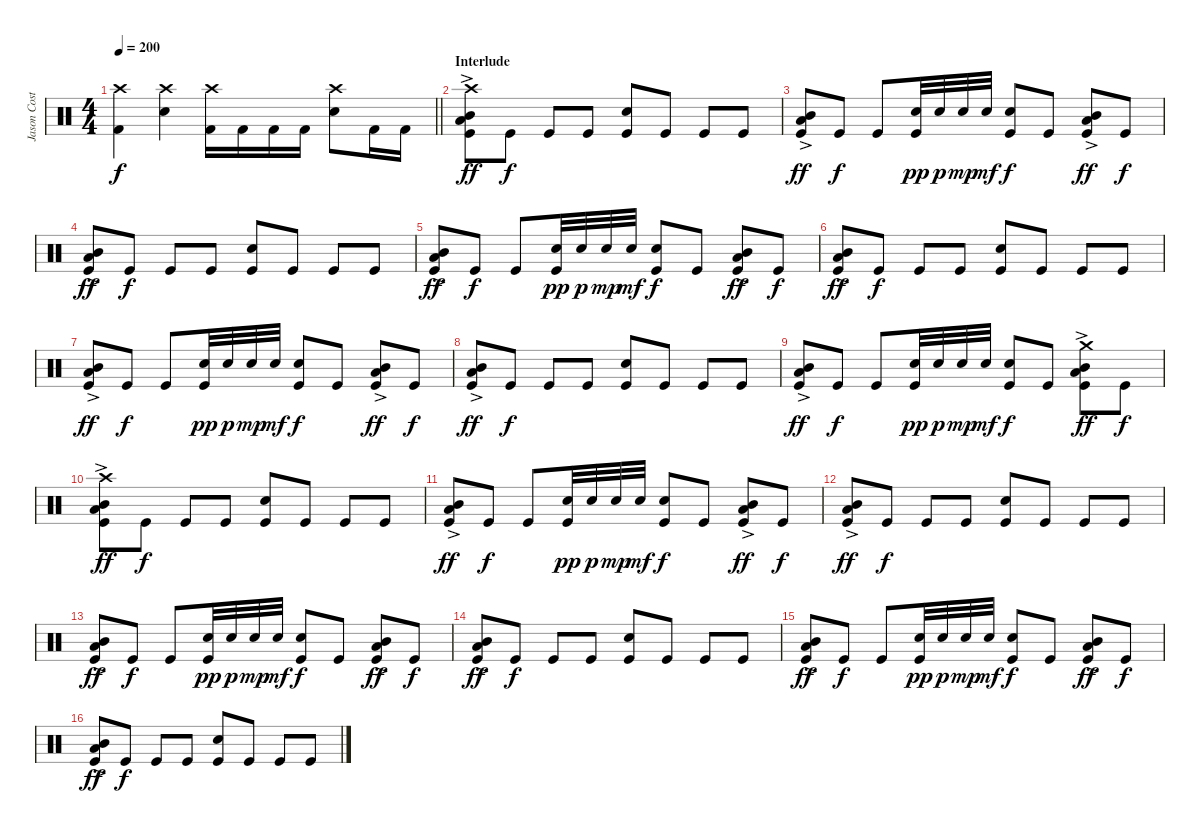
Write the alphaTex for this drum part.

\track ("Jason Costa" "Jason Cost") {instrument percussion}
\staff {score}
\articulation defaults
\ts (4 4)
\tempo 200
\clef neutral
\barLineRight lightlight
\ks c
("Crash high (hit)" "Kick (hit) 2").4{dy f} ("Crash high (hit)" "Electric Snare (hit)").4 ("Crash high (hit)" "Kick (hit) 2").16 "Kick (hit) 2".16 "Kick (hit) 2".16 "Kick (hit) 2".16 ("Crash high (hit)" "Electric Snare (hit)").8 "Kick (hit) 2".16 "Kick (hit) 2".16 |
\section ("" "Interlude")
("Crash high (hit)" "Mid Tom (hit)"{ac} "Low Tom (hit)"{ac} "Kick (hit)").8{dy ff} "Kick (hit)".8{dy f} "Kick (hit)".8 "Kick (hit)".8 ("Electric Snare (hit)" "Kick (hit)").8 "Kick (hit)".8 "Kick (hit)".8 "Kick (hit)".8 |
("Mid Tom (hit)"{ac} "Low Tom (hit)"{ac} "Kick (hit)").8{dy ff} "Kick (hit)".8{dy f} "Kick (hit)".8 ("Electric Snare (hit)" "Kick (hit)").32{dy pp} "Electric Snare (hit)".32{dy p} "Electric Snare (hit)".32{dy mp} "Electric Snare (hit)".32{dy mf} ("Electric Snare (hit)" "Kick (hit)").8{dy f} "Kick (hit)".8 ("Mid Tom (hit)"{ac} "Low Tom (hit)"{ac} "Kick (hit)").8{dy ff} "Kick (hit)".8{dy f} |
("Mid Tom (hit)"{ac} "Low Tom (hit)"{ac} "Kick (hit)").8{dy ff} "Kick (hit)".8{dy f} "Kick (hit)".8 "Kick (hit)".8 ("Electric Snare (hit)" "Kick (hit)").8 "Kick (hit)".8 "Kick (hit)".8 "Kick (hit)".8 |
("Mid Tom (hit)"{ac} "Low Tom (hit)"{ac} "Kick (hit)").8{dy ff} "Kick (hit)".8{dy f} "Kick (hit)".8 ("Electric Snare (hit)" "Kick (hit)").32{dy pp} "Electric Snare (hit)".32{dy p} "Electric Snare (hit)".32{dy mp} "Electric Snare (hit)".32{dy mf} ("Electric Snare (hit)" "Kick (hit)").8{dy f} "Kick (hit)".8 ("Mid Tom (hit)"{ac} "Low Tom (hit)"{ac} "Kick (hit)").8{dy ff} "Kick (hit)".8{dy f} |
("Mid Tom (hit)"{ac} "Low Tom (hit)"{ac} "Kick (hit)").8{dy ff} "Kick (hit)".8{dy f} "Kick (hit)".8 "Kick (hit)".8 ("Electric Snare (hit)" "Kick (hit)").8 "Kick (hit)".8 "Kick (hit)".8 "Kick (hit)".8 |
("Mid Tom (hit)"{ac} "Low Tom (hit)"{ac} "Kick (hit)").8{dy ff} "Kick (hit)".8{dy f} "Kick (hit)".8 ("Electric Snare (hit)" "Kick (hit)").32{dy pp} "Electric Snare (hit)".32{dy p} "Electric Snare (hit)".32{dy mp} "Electric Snare (hit)".32{dy mf} ("Electric Snare (hit)" "Kick (hit)").8{dy f} "Kick (hit)".8 ("Mid Tom (hit)"{ac} "Low Tom (hit)"{ac} "Kick (hit)").8{dy ff} "Kick (hit)".8{dy f} |
("Mid Tom (hit)"{ac} "Low Tom (hit)"{ac} "Kick (hit)").8{dy ff} "Kick (hit)".8{dy f} "Kick (hit)".8 "Kick (hit)".8 ("Electric Snare (hit)" "Kick (hit)").8 "Kick (hit)".8 "Kick (hit)".8 "Kick (hit)".8 |
("Mid Tom (hit)"{ac} "Low Tom (hit)"{ac} "Kick (hit)").8{dy ff} "Kick (hit)".8{dy f} "Kick (hit)".8 ("Electric Snare (hit)" "Kick (hit)").32{dy pp} "Electric Snare (hit)".32{dy p} "Electric Snare (hit)".32{dy mp} "Electric Snare (hit)".32{dy mf} ("Electric Snare (hit)" "Kick (hit)").8{dy f} "Kick (hit)".8 ("Crash medium (hit)" "Mid Tom (hit)"{ac} "Low Tom (hit)"{ac} "Kick (hit)").8{dy ff} "Kick (hit)".8{dy f} |
("Crash high (hit)" "Mid Tom (hit)"{ac} "Low Tom (hit)"{ac} "Kick (hit)").8{dy ff} "Kick (hit)".8{dy f} "Kick (hit)".8 "Kick (hit)".8 ("Electric Snare (hit)" "Kick (hit)").8 "Kick (hit)".8 "Kick (hit)".8 "Kick (hit)".8 |
("Mid Tom (hit)"{ac} "Low Tom (hit)"{ac} "Kick (hit)").8{dy ff} "Kick (hit)".8{dy f} "Kick (hit)".8 ("Electric Snare (hit)" "Kick (hit)").32{dy pp} "Electric Snare (hit)".32{dy p} "Electric Snare (hit)".32{dy mp} "Electric Snare (hit)".32{dy mf} ("Electric Snare (hit)" "Kick (hit)").8{dy f} "Kick (hit)".8 ("Mid Tom (hit)"{ac} "Low Tom (hit)"{ac} "Kick (hit)").8{dy ff} "Kick (hit)".8{dy f} |
("Mid Tom (hit)"{ac} "Low Tom (hit)"{ac} "Kick (hit)").8{dy ff} "Kick (hit)".8{dy f} "Kick (hit)".8 "Kick (hit)".8 ("Electric Snare (hit)" "Kick (hit)").8 "Kick (hit)".8 "Kick (hit)".8 "Kick (hit)".8 |
("Mid Tom (hit)"{ac} "Low Tom (hit)"{ac} "Kick (hit)").8{dy ff} "Kick (hit)".8{dy f} "Kick (hit)".8 ("Electric Snare (hit)" "Kick (hit)").32{dy pp} "Electric Snare (hit)".32{dy p} "Electric Snare (hit)".32{dy mp} "Electric Snare (hit)".32{dy mf} ("Electric Snare (hit)" "Kick (hit)").8{dy f} "Kick (hit)".8 ("Mid Tom (hit)"{ac} "Low Tom (hit)"{ac} "Kick (hit)").8{dy ff} "Kick (hit)".8{dy f} |
("Mid Tom (hit)"{ac} "Low Tom (hit)"{ac} "Kick (hit)").8{dy ff} "Kick (hit)".8{dy f} "Kick (hit)".8 "Kick (hit)".8 ("Electric Snare (hit)" "Kick (hit)").8 "Kick (hit)".8 "Kick (hit)".8 "Kick (hit)".8 |
("Mid Tom (hit)"{ac} "Low Tom (hit)"{ac} "Kick (hit)").8{dy ff} "Kick (hit)".8{dy f} "Kick (hit)".8 ("Electric Snare (hit)" "Kick (hit)").32{dy pp} "Electric Snare (hit)".32{dy p} "Electric Snare (hit)".32{dy mp} "Electric Snare (hit)".32{dy mf} ("Electric Snare (hit)" "Kick (hit)").8{dy f} "Kick (hit)".8 ("Mid Tom (hit)"{ac} "Low Tom (hit)"{ac} "Kick (hit)").8{dy ff} "Kick (hit)".8{dy f} |
("Mid Tom (hit)"{ac} "Low Tom (hit)"{ac} "Kick (hit)").8{dy ff} "Kick (hit)".8{dy f} "Kick (hit)".8 "Kick (hit)".8 ("Electric Snare (hit)" "Kick (hit)").8 "Kick (hit)".8 "Kick (hit)".8 "Kick (hit)".8
